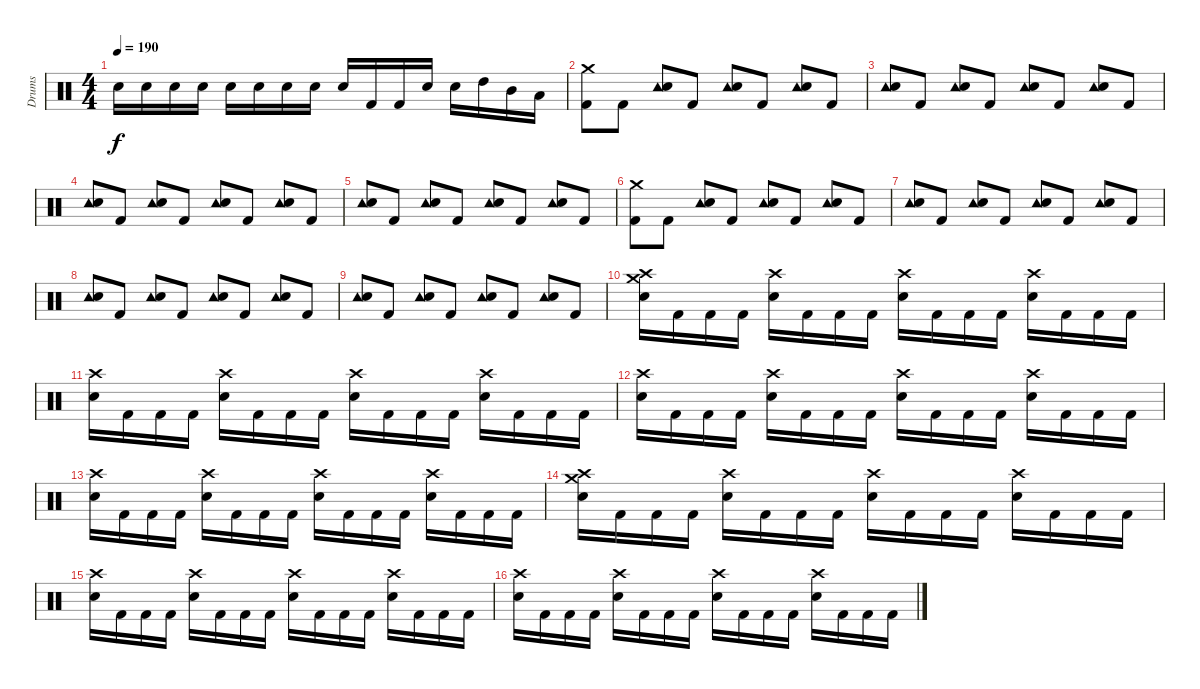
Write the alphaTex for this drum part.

\track ("Drums" "Drums") {instrument percussion}
\staff {score}
\articulation defaults
\ts (4 4)
\tempo 190
\clef neutral
\ks c "Electric Snare (hit)".16{dy f} "Electric Snare (hit)".16 "Electric Snare (hit)".16 "Electric Snare (hit)".16 "Electric Snare (hit)".16 "Electric Snare (hit)".16 "Electric Snare (hit)".16 "Electric Snare (hit)".16 "Electric Snare (hit)".16 "Kick (hit) 2".16 "Kick (hit) 2".16 "Electric Snare (hit)".16 "Electric Snare (hit)".16 "High Tom (hit)".16 "Mid Tom (hit)".16 "Low Tom (hit)".16
|
("Crash medium (hit)" "Kick (hit) 2").8 "Kick (hit) 2".8 ("Tambourine (hit)" "Electric Snare (hit)").8 "Kick (hit) 2".8 ("Tambourine (hit)" "Electric Snare (hit)").8 "Kick (hit) 2".8 ("Tambourine (hit)" "Electric Snare (hit)").8 "Kick (hit) 2".8 |
("Tambourine (hit)" "Electric Snare (hit)").8 "Kick (hit) 2".8 ("Tambourine (hit)" "Electric Snare (hit)").8 "Kick (hit) 2".8 ("Tambourine (hit)" "Electric Snare (hit)").8 "Kick (hit) 2".8 ("Tambourine (hit)" "Electric Snare (hit)").8 "Kick (hit) 2".8 |
("Tambourine (hit)" "Electric Snare (hit)").8 "Kick (hit) 2".8 ("Tambourine (hit)" "Electric Snare (hit)").8 "Kick (hit) 2".8 ("Tambourine (hit)" "Electric Snare (hit)").8 "Kick (hit) 2".8 ("Tambourine (hit)" "Electric Snare (hit)").8 "Kick (hit) 2".8 |
("Tambourine (hit)" "Electric Snare (hit)").8 "Kick (hit) 2".8 ("Tambourine (hit)" "Electric Snare (hit)").8 "Kick (hit) 2".8 ("Tambourine (hit)" "Electric Snare (hit)").8 "Kick (hit) 2".8 ("Tambourine (hit)" "Electric Snare (hit)").8 "Kick (hit) 2".8 |
("Crash medium (hit)" "Kick (hit) 2").8 "Kick (hit) 2".8 ("Tambourine (hit)" "Electric Snare (hit)").8 "Kick (hit) 2".8 ("Tambourine (hit)" "Electric Snare (hit)").8 "Kick (hit) 2".8 ("Tambourine (hit)" "Electric Snare (hit)").8 "Kick (hit) 2".8 |
("Tambourine (hit)" "Electric Snare (hit)").8 "Kick (hit) 2".8 ("Tambourine (hit)" "Electric Snare (hit)").8 "Kick (hit) 2".8 ("Tambourine (hit)" "Electric Snare (hit)").8 "Kick (hit) 2".8 ("Tambourine (hit)" "Electric Snare (hit)").8 "Kick (hit) 2".8 |
("Tambourine (hit)" "Electric Snare (hit)").8 "Kick (hit) 2".8 ("Tambourine (hit)" "Electric Snare (hit)").8 "Kick (hit) 2".8 ("Tambourine (hit)" "Electric Snare (hit)").8 "Kick (hit) 2".8 ("Tambourine (hit)" "Electric Snare (hit)").8 "Kick (hit) 2".8 |
("Tambourine (hit)" "Electric Snare (hit)").8 "Kick (hit) 2".8 ("Tambourine (hit)" "Electric Snare (hit)").8 "Kick (hit) 2".8 ("Tambourine (hit)" "Electric Snare (hit)").8 "Kick (hit) 2".8 ("Tambourine (hit)" "Electric Snare (hit)").8 "Kick (hit) 2".8 |
("Crash medium (hit)" "Crash high (hit)" "Electric Snare (hit)").16 "Kick (hit) 2".16 "Kick (hit) 2".16 "Kick (hit) 2".16 ("Crash high (hit)" "Electric Snare (hit)").16 "Kick (hit) 2".16 "Kick (hit) 2".16 "Kick (hit) 2".16 ("Crash high (hit)" "Electric Snare (hit)").16 "Kick (hit) 2".16 "Kick (hit) 2".16 "Kick (hit) 2".16 ("Crash high (hit)" "Electric Snare (hit)").16 "Kick (hit) 2".16 "Kick (hit) 2".16 "Kick (hit) 2".16 |
("Crash high (hit)" "Electric Snare (hit)").16 "Kick (hit) 2".16 "Kick (hit) 2".16 "Kick (hit) 2".16 ("Crash high (hit)" "Electric Snare (hit)").16 "Kick (hit) 2".16 "Kick (hit) 2".16 "Kick (hit) 2".16 ("Crash high (hit)" "Electric Snare (hit)").16 "Kick (hit) 2".16 "Kick (hit) 2".16 "Kick (hit) 2".16 ("Crash high (hit)" "Electric Snare (hit)").16 "Kick (hit) 2".16 "Kick (hit) 2".16 "Kick (hit) 2".16 |
("Crash high (hit)" "Electric Snare (hit)").16 "Kick (hit) 2".16 "Kick (hit) 2".16 "Kick (hit) 2".16 ("Crash high (hit)" "Electric Snare (hit)").16 "Kick (hit) 2".16 "Kick (hit) 2".16 "Kick (hit) 2".16 ("Crash high (hit)" "Electric Snare (hit)").16 "Kick (hit) 2".16 "Kick (hit) 2".16 "Kick (hit) 2".16 ("Crash high (hit)" "Electric Snare (hit)").16 "Kick (hit) 2".16 "Kick (hit) 2".16 "Kick (hit) 2".16 |
("Crash high (hit)" "Electric Snare (hit)").16 "Kick (hit) 2".16 "Kick (hit) 2".16 "Kick (hit) 2".16 ("Crash high (hit)" "Electric Snare (hit)").16 "Kick (hit) 2".16 "Kick (hit) 2".16 "Kick (hit) 2".16 ("Crash high (hit)" "Electric Snare (hit)").16 "Kick (hit) 2".16 "Kick (hit) 2".16 "Kick (hit) 2".16 ("Crash high (hit)" "Electric Snare (hit)").16 "Kick (hit) 2".16 "Kick (hit) 2".16 "Kick (hit) 2".16 |
("Crash medium (hit)" "Crash high (hit)" "Electric Snare (hit)").16 "Kick (hit) 2".16 "Kick (hit) 2".16 "Kick (hit) 2".16 ("Crash high (hit)" "Electric Snare (hit)").16 "Kick (hit) 2".16 "Kick (hit) 2".16 "Kick (hit) 2".16 ("Crash high (hit)" "Electric Snare (hit)").16 "Kick (hit) 2".16 "Kick (hit) 2".16 "Kick (hit) 2".16 ("Crash high (hit)" "Electric Snare (hit)").16 "Kick (hit) 2".16 "Kick (hit) 2".16 "Kick (hit) 2".16 |
("Crash high (hit)" "Electric Snare (hit)").16 "Kick (hit) 2".16 "Kick (hit) 2".16 "Kick (hit) 2".16 ("Crash high (hit)" "Electric Snare (hit)").16 "Kick (hit) 2".16 "Kick (hit) 2".16 "Kick (hit) 2".16 ("Crash high (hit)" "Electric Snare (hit)").16 "Kick (hit) 2".16 "Kick (hit) 2".16 "Kick (hit) 2".16 ("Crash high (hit)" "Electric Snare (hit)").16 "Kick (hit) 2".16 "Kick (hit) 2".16 "Kick (hit) 2".16 |
("Crash high (hit)" "Electric Snare (hit)").16 "Kick (hit) 2".16 "Kick (hit) 2".16 "Kick (hit) 2".16 ("Crash high (hit)" "Electric Snare (hit)").16 "Kick (hit) 2".16 "Kick (hit) 2".16 "Kick (hit) 2".16 ("Crash high (hit)" "Electric Snare (hit)").16 "Kick (hit) 2".16 "Kick (hit) 2".16 "Kick (hit) 2".16 ("Crash high (hit)" "Electric Snare (hit)").16 "Kick (hit) 2".16 "Kick (hit) 2".16 "Kick (hit) 2".16
